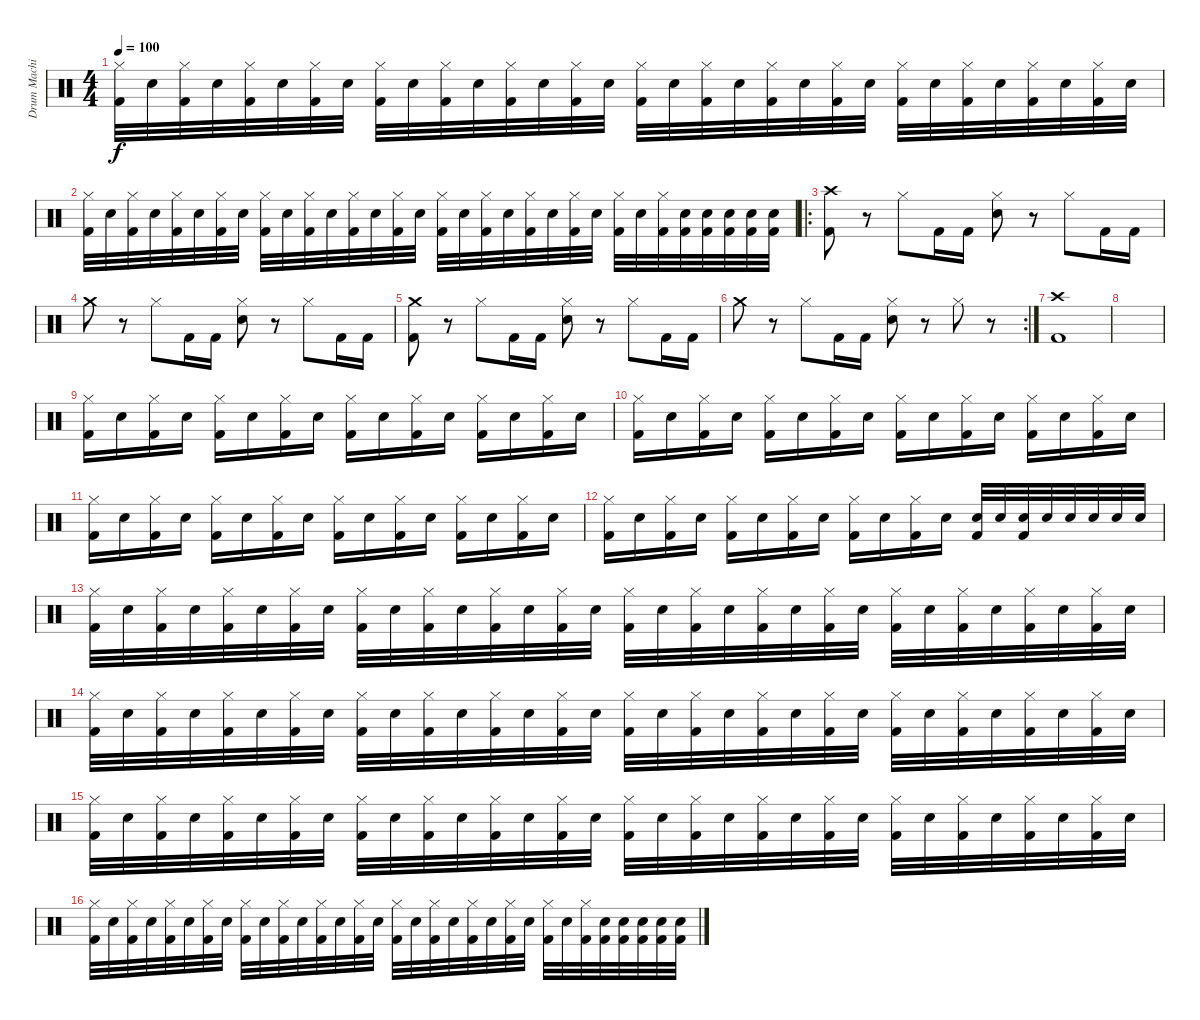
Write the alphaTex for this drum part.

\track ("Drum Machine" "Drum Machi") {instrument percussion}
\staff {score}
\articulation defaults
\ts (4 4)
\tempo 100
\clef neutral
\ks c
("Hi-Hat (closed)" "Kick (hit) 2").32{dy f} "Snare (hit) 2".32 ("Hi-Hat (closed)" "Kick (hit) 2").32 "Snare (hit) 2".32 ("Hi-Hat (closed)" "Kick (hit) 2").32 "Snare (hit) 2".32 ("Hi-Hat (closed)" "Kick (hit) 2").32 "Snare (hit) 2".32 ("Hi-Hat (closed)" "Kick (hit) 2").32 "Snare (hit) 2".32 ("Hi-Hat (closed)" "Kick (hit) 2").32 "Snare (hit) 2".32 ("Hi-Hat (closed)" "Kick (hit) 2").32 "Snare (hit) 2".32 ("Hi-Hat (closed)" "Kick (hit) 2").32 "Snare (hit) 2".32 ("Hi-Hat (closed)" "Kick (hit) 2").32 "Snare (hit) 2".32 ("Hi-Hat (closed)" "Kick (hit) 2").32 "Snare (hit) 2".32 ("Hi-Hat (closed)" "Kick (hit) 2").32 "Snare (hit) 2".32 ("Hi-Hat (closed)" "Kick (hit) 2").32 "Snare (hit) 2".32 ("Hi-Hat (closed)" "Kick (hit) 2").32 "Snare (hit) 2".32 ("Hi-Hat (closed)" "Kick (hit) 2").32 "Snare (hit) 2".32 ("Hi-Hat (closed)" "Kick (hit) 2").32 "Snare (hit) 2".32 ("Hi-Hat (closed)" "Kick (hit) 2").32 "Snare (hit) 2".32 |
("Hi-Hat (closed)" "Kick (hit) 2").32 "Snare (hit) 2".32 ("Hi-Hat (closed)" "Kick (hit) 2").32 "Snare (hit) 2".32 ("Hi-Hat (closed)" "Kick (hit) 2").32 "Snare (hit) 2".32 ("Hi-Hat (closed)" "Kick (hit) 2").32 "Snare (hit) 2".32 ("Hi-Hat (closed)" "Kick (hit) 2").32 "Snare (hit) 2".32 ("Hi-Hat (closed)" "Kick (hit) 2").32 "Snare (hit) 2".32 ("Hi-Hat (closed)" "Kick (hit) 2").32 "Snare (hit) 2".32 ("Hi-Hat (closed)" "Kick (hit) 2").32 "Snare (hit) 2".32 ("Hi-Hat (closed)" "Kick (hit) 2").32 "Snare (hit) 2".32 ("Hi-Hat (closed)" "Kick (hit) 2").32 "Snare (hit) 2".32 ("Hi-Hat (closed)" "Kick (hit) 2").32 "Snare (hit) 2".32 ("Hi-Hat (closed)" "Kick (hit) 2").32 "Snare (hit) 2".32 ("Hi-Hat (closed)" "Kick (hit) 2").32 "Snare (hit) 2".32 ("Hi-Hat (closed)" "Kick (hit) 2").32 ("Snare (hit) 2" "Kick (hit) 2").32 ("Snare (hit) 2" "Kick (hit) 2").32 ("Snare (hit) 2" "Kick (hit) 2").32 ("Snare (hit) 2" "Kick (hit) 2").32 ("Snare (hit) 2" "Kick (hit) 2").32 |
\ro
("Crash high (hit)" "Kick (hit) 2").8 r.8 "Hi-Hat (closed)".8 "Kick (hit) 2".16 "Kick (hit) 2".16 ("Hi-Hat (closed)" "Snare (hit) 2").8 r.8 "Hi-Hat (closed)".8 "Kick (hit) 2".16 "Kick (hit) 2".16 |
"Crash medium (hit)".8 r.8 "Hi-Hat (closed)".8 "Kick (hit) 2".16 "Kick (hit) 2".16 ("Hi-Hat (closed)" "Snare (hit) 2").8 r.8 "Hi-Hat (closed)".8 "Kick (hit) 2".16 "Kick (hit) 2".16 |
("Crash medium (hit)" "Kick (hit) 2").8 r.8 "Hi-Hat (closed)".8 "Kick (hit) 2".16 "Kick (hit) 2".16 ("Hi-Hat (closed)" "Snare (hit) 2").8 r.8 "Hi-Hat (closed)".8 "Kick (hit) 2".16 "Kick (hit) 2".16 |
\rc 2 "Crash medium (hit)".8
r.8 "Hi-Hat (closed)".8 "Kick (hit) 2".16 "Kick (hit) 2".16 ("Hi-Hat (closed)" "Snare (hit) 2").8 r.8 "Hi-Hat (closed)".8 r.8 |
("Crash high (hit)" "Kick (hit) 2").1 |
|
("Hi-Hat (closed)" "Kick (hit) 2").16 "Snare (hit) 2".16 ("Hi-Hat (closed)" "Kick (hit) 2").16 "Snare (hit) 2".16 ("Hi-Hat (closed)" "Kick (hit) 2").16 "Snare (hit) 2".16 ("Hi-Hat (closed)" "Kick (hit) 2").16 "Snare (hit) 2".16 ("Hi-Hat (closed)" "Kick (hit) 2").16 "Snare (hit) 2".16 ("Hi-Hat (closed)" "Kick (hit) 2").16 "Snare (hit) 2".16 ("Hi-Hat (closed)" "Kick (hit) 2").16 "Snare (hit) 2".16 ("Hi-Hat (closed)" "Kick (hit) 2").16 "Snare (hit) 2".16 |
("Hi-Hat (closed)" "Kick (hit) 2").16 "Snare (hit) 2".16 ("Hi-Hat (closed)" "Kick (hit) 2").16 "Snare (hit) 2".16 ("Hi-Hat (closed)" "Kick (hit) 2").16 "Snare (hit) 2".16 ("Hi-Hat (closed)" "Kick (hit) 2").16 "Snare (hit) 2".16 ("Hi-Hat (closed)" "Kick (hit) 2").16 "Snare (hit) 2".16 ("Hi-Hat (closed)" "Kick (hit) 2").16 "Snare (hit) 2".16 ("Hi-Hat (closed)" "Kick (hit) 2").16 "Snare (hit) 2".16 ("Hi-Hat (closed)" "Kick (hit) 2").16 "Snare (hit) 2".16 |
("Hi-Hat (closed)" "Kick (hit) 2").16 "Snare (hit) 2".16 ("Hi-Hat (closed)" "Kick (hit) 2").16 "Snare (hit) 2".16 ("Hi-Hat (closed)" "Kick (hit) 2").16 "Snare (hit) 2".16 ("Hi-Hat (closed)" "Kick (hit) 2").16 "Snare (hit) 2".16 ("Hi-Hat (closed)" "Kick (hit) 2").16 "Snare (hit) 2".16 ("Hi-Hat (closed)" "Kick (hit) 2").16 "Snare (hit) 2".16 ("Hi-Hat (closed)" "Kick (hit) 2").16 "Snare (hit) 2".16 ("Hi-Hat (closed)" "Kick (hit) 2").16 "Snare (hit) 2".16 |
("Hi-Hat (closed)" "Kick (hit) 2").16 "Snare (hit) 2".16 ("Hi-Hat (closed)" "Kick (hit) 2").16 "Snare (hit) 2".16 ("Hi-Hat (closed)" "Kick (hit) 2").16 "Snare (hit) 2".16 ("Hi-Hat (closed)" "Kick (hit) 2").16 "Snare (hit) 2".16 ("Hi-Hat (closed)" "Kick (hit) 2").16 "Snare (hit) 2".16 ("Hi-Hat (closed)" "Kick (hit) 2").16 "Snare (hit) 2".16 ("Snare (hit) 2" "Kick (hit) 2").32 "Snare (hit) 2".32 ("Snare (hit) 2" "Kick (hit) 2").32 "Snare (hit) 2".32 "Snare (hit) 2".32 "Snare (hit) 2".32 "Snare (hit) 2".32 "Snare (hit) 2".32 |
("Hi-Hat (closed)" "Kick (hit) 2").32 "Snare (hit) 2".32 ("Hi-Hat (closed)" "Kick (hit) 2").32 "Snare (hit) 2".32 ("Hi-Hat (closed)" "Kick (hit) 2").32 "Snare (hit) 2".32 ("Hi-Hat (closed)" "Kick (hit) 2").32 "Snare (hit) 2".32 ("Hi-Hat (closed)" "Kick (hit) 2").32 "Snare (hit) 2".32 ("Hi-Hat (closed)" "Kick (hit) 2").32 "Snare (hit) 2".32 ("Hi-Hat (closed)" "Kick (hit) 2").32 "Snare (hit) 2".32 ("Hi-Hat (closed)" "Kick (hit) 2").32 "Snare (hit) 2".32 ("Hi-Hat (closed)" "Kick (hit) 2").32 "Snare (hit) 2".32 ("Hi-Hat (closed)" "Kick (hit) 2").32 "Snare (hit) 2".32 ("Hi-Hat (closed)" "Kick (hit) 2").32 "Snare (hit) 2".32 ("Hi-Hat (closed)" "Kick (hit) 2").32 "Snare (hit) 2".32 ("Hi-Hat (closed)" "Kick (hit) 2").32 "Snare (hit) 2".32 ("Hi-Hat (closed)" "Kick (hit) 2").32 "Snare (hit) 2".32 ("Hi-Hat (closed)" "Kick (hit) 2").32 "Snare (hit) 2".32 ("Hi-Hat (closed)" "Kick (hit) 2").32 "Snare (hit) 2".32 |
("Hi-Hat (closed)" "Kick (hit) 2").32 "Snare (hit) 2".32 ("Hi-Hat (closed)" "Kick (hit) 2").32 "Snare (hit) 2".32 ("Hi-Hat (closed)" "Kick (hit) 2").32 "Snare (hit) 2".32 ("Hi-Hat (closed)" "Kick (hit) 2").32 "Snare (hit) 2".32 ("Hi-Hat (closed)" "Kick (hit) 2").32 "Snare (hit) 2".32 ("Hi-Hat (closed)" "Kick (hit) 2").32 "Snare (hit) 2".32 ("Hi-Hat (closed)" "Kick (hit) 2").32 "Snare (hit) 2".32 ("Hi-Hat (closed)" "Kick (hit) 2").32 "Snare (hit) 2".32 ("Hi-Hat (closed)" "Kick (hit) 2").32 "Snare (hit) 2".32 ("Hi-Hat (closed)" "Kick (hit) 2").32 "Snare (hit) 2".32 ("Hi-Hat (closed)" "Kick (hit) 2").32 "Snare (hit) 2".32 ("Hi-Hat (closed)" "Kick (hit) 2").32 "Snare (hit) 2".32 ("Hi-Hat (closed)" "Kick (hit) 2").32 "Snare (hit) 2".32 ("Hi-Hat (closed)" "Kick (hit) 2").32 "Snare (hit) 2".32 ("Hi-Hat (closed)" "Kick (hit) 2").32 "Snare (hit) 2".32 ("Hi-Hat (closed)" "Kick (hit) 2").32 "Snare (hit) 2".32 |
("Hi-Hat (closed)" "Kick (hit) 2").32 "Snare (hit) 2".32 ("Hi-Hat (closed)" "Kick (hit) 2").32 "Snare (hit) 2".32 ("Hi-Hat (closed)" "Kick (hit) 2").32 "Snare (hit) 2".32 ("Hi-Hat (closed)" "Kick (hit) 2").32 "Snare (hit) 2".32 ("Hi-Hat (closed)" "Kick (hit) 2").32 "Snare (hit) 2".32 ("Hi-Hat (closed)" "Kick (hit) 2").32 "Snare (hit) 2".32 ("Hi-Hat (closed)" "Kick (hit) 2").32 "Snare (hit) 2".32 ("Hi-Hat (closed)" "Kick (hit) 2").32 "Snare (hit) 2".32 ("Hi-Hat (closed)" "Kick (hit) 2").32 "Snare (hit) 2".32 ("Hi-Hat (closed)" "Kick (hit) 2").32 "Snare (hit) 2".32 ("Hi-Hat (closed)" "Kick (hit) 2").32 "Snare (hit) 2".32 ("Hi-Hat (closed)" "Kick (hit) 2").32 "Snare (hit) 2".32 ("Hi-Hat (closed)" "Kick (hit) 2").32 "Snare (hit) 2".32 ("Hi-Hat (closed)" "Kick (hit) 2").32 "Snare (hit) 2".32 ("Hi-Hat (closed)" "Kick (hit) 2").32 "Snare (hit) 2".32 ("Hi-Hat (closed)" "Kick (hit) 2").32 "Snare (hit) 2".32 |
("Hi-Hat (closed)" "Kick (hit) 2").32 "Snare (hit) 2".32 ("Hi-Hat (closed)" "Kick (hit) 2").32 "Snare (hit) 2".32 ("Hi-Hat (closed)" "Kick (hit) 2").32 "Snare (hit) 2".32 ("Hi-Hat (closed)" "Kick (hit) 2").32 "Snare (hit) 2".32 ("Hi-Hat (closed)" "Kick (hit) 2").32 "Snare (hit) 2".32 ("Hi-Hat (closed)" "Kick (hit) 2").32 "Snare (hit) 2".32 ("Hi-Hat (closed)" "Kick (hit) 2").32 "Snare (hit) 2".32 ("Hi-Hat (closed)" "Kick (hit) 2").32 "Snare (hit) 2".32 ("Hi-Hat (closed)" "Kick (hit) 2").32 "Snare (hit) 2".32 ("Hi-Hat (closed)" "Kick (hit) 2").32 "Snare (hit) 2".32 ("Hi-Hat (closed)" "Kick (hit) 2").32 "Snare (hit) 2".32 ("Hi-Hat (closed)" "Kick (hit) 2").32 "Snare (hit) 2".32 ("Hi-Hat (closed)" "Kick (hit) 2").32 "Snare (hit) 2".32 ("Hi-Hat (closed)" "Kick (hit) 2").32 ("Snare (hit) 2" "Kick (hit) 2").32 ("Snare (hit) 2" "Kick (hit) 2").32 ("Snare (hit) 2" "Kick (hit) 2").32 ("Snare (hit) 2" "Kick (hit) 2").32 ("Snare (hit) 2" "Kick (hit) 2").32
